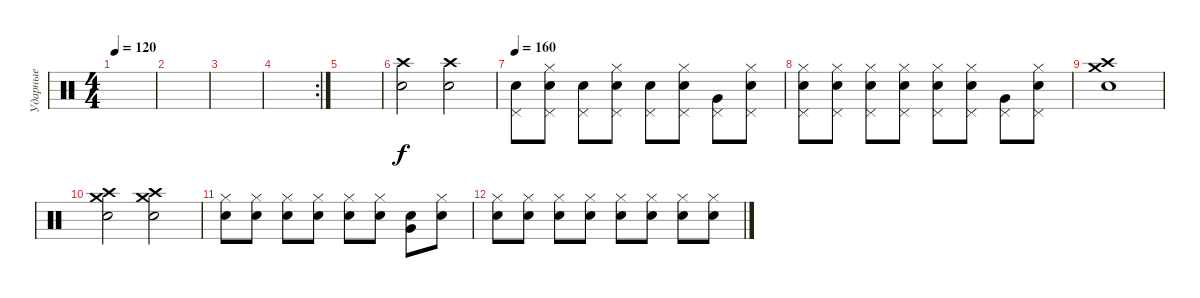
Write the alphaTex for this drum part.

\track ("Ударные" "Ударные") {instrument percussion}
\staff {score}
\articulation defaults
\ts (4 4)
\tempo 120
\clef neutral
\ks c
|
|
|
\rc 2
|
|
("Snare (hit) 2" "Crash high (hit)").2 ("Snare (hit) 2" "Crash high (hit)").2 |
\tempo 160
("Snare (hit) 2" "Pedal Hi-Hat (hit)").8 ("Hi-Hat (closed)" "Snare (hit) 2" "Pedal Hi-Hat (hit)").8 ("Snare (hit) 2" "Pedal Hi-Hat (hit)").8 ("Hi-Hat (closed)" "Snare (hit) 2" "Pedal Hi-Hat (hit)").8 ("Snare (hit) 2" "Pedal Hi-Hat (hit)").8 ("Hi-Hat (closed)" "Snare (hit) 2" "Pedal Hi-Hat (hit)").8 ("Very Low Tom (hit)" "Pedal Hi-Hat (hit)").8 ("Hi-Hat (closed)" "Snare (hit) 2" "Pedal Hi-Hat (hit)").8 |
("Hi-Hat (closed)" "Snare (hit) 2" "Pedal Hi-Hat (hit)").8 ("Hi-Hat (closed)" "Snare (hit) 2" "Pedal Hi-Hat (hit)").8 ("Hi-Hat (closed)" "Snare (hit) 2" "Pedal Hi-Hat (hit)").8 ("Hi-Hat (closed)" "Snare (hit) 2" "Pedal Hi-Hat (hit)").8 ("Hi-Hat (closed)" "Snare (hit) 2" "Pedal Hi-Hat (hit)").8 ("Hi-Hat (closed)" "Snare (hit) 2" "Pedal Hi-Hat (hit)").8 ("Very Low Tom (hit)" "Pedal Hi-Hat (hit)").8 ("Hi-Hat (closed)" "Snare (hit) 2" "Pedal Hi-Hat (hit)").8 |
("Snare (hit) 2" "Crash high (hit)" "Crash medium (hit)").1 |
("Snare (hit) 2" "Crash high (hit)" "Crash medium (hit)").2 ("Snare (hit) 2" "Crash high (hit)" "Crash medium (hit)").2 |
("Hi-Hat (closed)" "Snare (hit) 2").8 ("Hi-Hat (closed)" "Snare (hit) 2").8 ("Hi-Hat (closed)" "Snare (hit) 2").8 ("Hi-Hat (closed)" "Snare (hit) 2").8 ("Hi-Hat (closed)" "Snare (hit) 2").8 ("Hi-Hat (closed)" "Snare (hit) 2").8 ("Very Low Tom (hit)" "Snare (hit) 2").8 ("Hi-Hat (closed)" "Snare (hit) 2").8 |
("Hi-Hat (closed)" "Snare (hit) 2").8 ("Hi-Hat (closed)" "Snare (hit) 2").8 ("Hi-Hat (closed)" "Snare (hit) 2").8 ("Hi-Hat (closed)" "Snare (hit) 2").8 ("Hi-Hat (closed)" "Snare (hit) 2").8 ("Hi-Hat (closed)" "Snare (hit) 2").8 ("Hi-Hat (closed)" "Snare (hit) 2").8 ("Hi-Hat (closed)" "Snare (hit) 2").8
